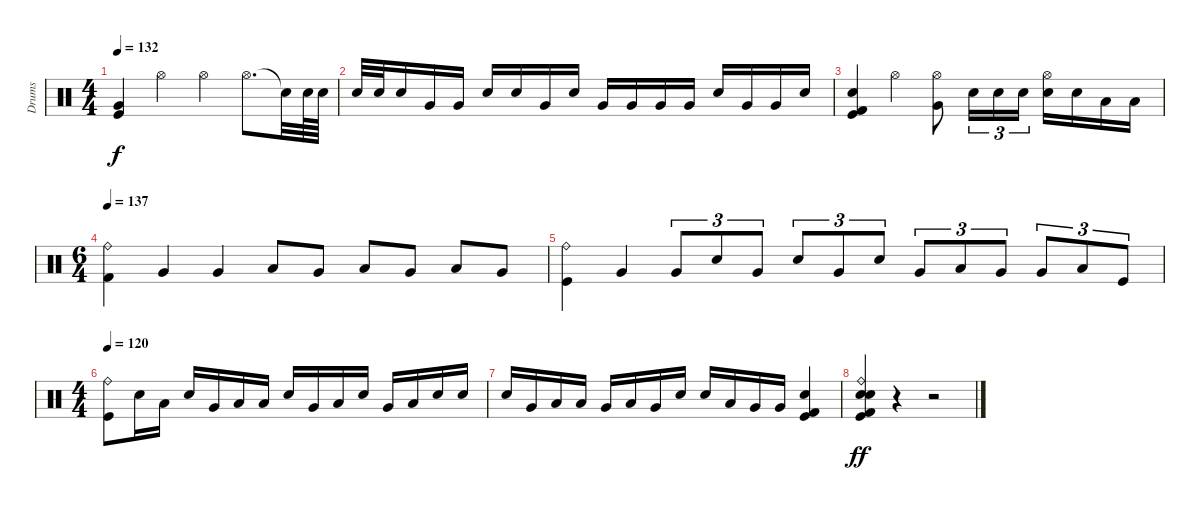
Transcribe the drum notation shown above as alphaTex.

\track ("Drums" "Drums") {instrument percussion}
\staff {score}
\articulation defaults
\ts (4 4)
\tempo 132
\clef neutral
\ks c
("Kick (hit)" "Very Low Tom (hit)").4{dy f} "Hi-Hat (open)".4 "Hi-Hat (open)".4 "Hi-Hat (open)".8{d} "Snare (hit)"{t}.32 "Snare (hit) 2".64 "Snare (hit) 2".64 |
"Snare (hit) 2".32 "Snare (hit) 2".32 "Snare (hit) 2".16 "Very Low Tom (hit)".16 "Very Low Tom (hit)".16 "Snare (hit) 2".16 "Snare (hit) 2".16 "Very Low Tom (hit)".16 "Snare (hit) 2".16 "Very Low Tom (hit)".16 "Very Low Tom (hit)".16 "Very Low Tom (hit)".16 "Very Low Tom (hit)".16 "Snare (hit) 2".16 "Very Low Tom (hit)".16 "Very Low Tom (hit)".16 "Snare (hit) 2".16 |
("Kick (hit)" "Kick (hit) 2" "Snare (hit) 2").4 "Hi-Hat (open)".4 ("Very Low Tom (hit)" "Hi-Hat (open)").8 "Snare (hit) 2".16{tu (3 2)} "Snare (hit) 2".16{tu (3 2)} "Snare (hit) 2".16{tu (3 2)} ("Snare (hit) 2" "Hi-Hat (open)").16 "Snare (hit) 2".16 "Low Floor Tom (hit)".16 "Low Floor Tom (hit)".16 |
\ts (6 4)
\tempo 137
("Kick (hit) 2" "Ride (bell)").4 "Very Low Tom (hit)".4 "Very Low Tom (hit)".4 "Low Floor Tom (hit)".8 "Very Low Tom (hit)".8 "Low Floor Tom (hit)".8 "Very Low Tom (hit)".8 "Low Floor Tom (hit)".8 "Very Low Tom (hit)".8 |
("Kick (hit)" "Ride (bell)").4 "Very Low Tom (hit)".4 "Very Low Tom (hit)".8{tu (3 2)} "Snare (hit) 2".8{tu (3 2)} "Very Low Tom (hit)".8{tu (3 2)} "Snare (hit) 2".8{tu (3 2)} "Very Low Tom (hit)".8{tu (3 2)} "Snare (hit) 2".8{tu (3 2)} "Very Low Tom (hit)".8{tu (3 2)} "Low Tom (hit)".8{tu (3 2)} "Very Low Tom (hit)".8{tu (3 2)} "Very Low Tom (hit)".8{tu (3 2)} "Low Floor Tom (hit)".8{tu (3 2)} "Kick (hit)".8{tu (3 2)} |
\ts (4 4)
\tempo 120
("Kick (hit)" "Ride (bell)").8 "Snare (hit) 2".16 "Low Tom (hit)".16 "Snare (hit) 2".16 "Very Low Tom (hit)".16 "Low Floor Tom (hit)".16 "Low Tom (hit)".16 "Snare (hit) 2".16 "Very Low Tom (hit)".16 "Low Floor Tom (hit)".16 "Snare (hit) 2".16 "Very Low Tom (hit)".16 "Low Floor Tom (hit)".16 "Snare (hit) 2".16 "Snare (hit) 2".16 |
"Snare (hit) 2".16 "Very Low Tom (hit)".16 "Low Floor Tom (hit)".16 "Low Floor Tom (hit)".16 "Very Low Tom (hit)".16 "Low Tom (hit)".16 "Very Low Tom (hit)".16 "Snare (hit) 2".16 "Snare (hit) 2".16 "Low Tom (hit)".16 "Very Low Tom (hit)".16 "Very Low Tom (hit)".16 ("Kick (hit) 2" "Kick (hit)" "Snare (hit) 2").4 |
("Electric Snare (hit)" "Snare (hit) 2" "Kick (hit)" "Kick (hit) 2" "Ride (bell)").4{dy ff} r.4 r.2
